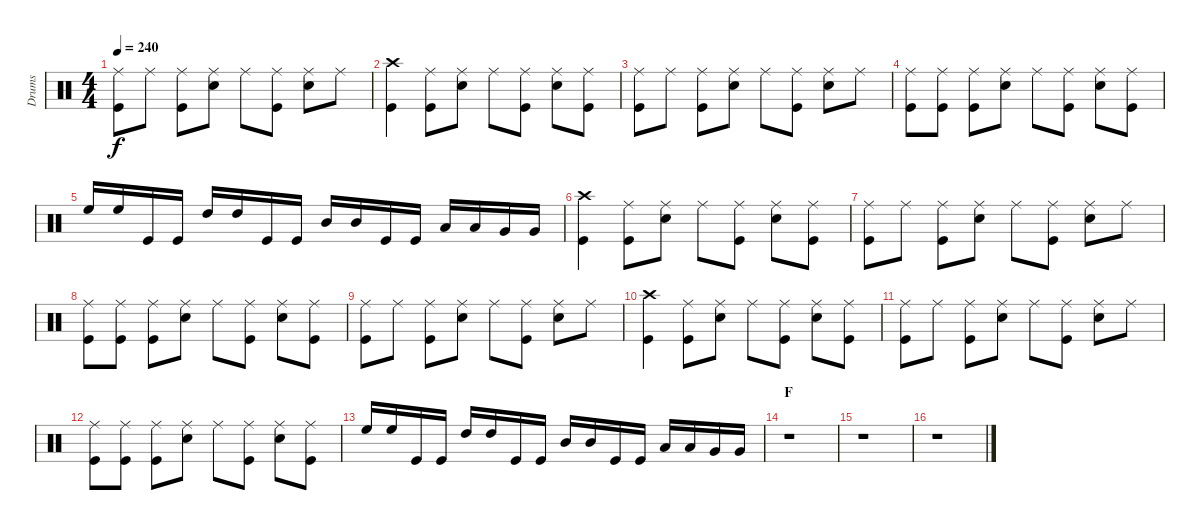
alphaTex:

\track ("Drums" "Drums") {instrument percussion}
\staff {score}
\articulation defaults
\ts (4 4)
\tempo 240
\clef neutral
\ks c
("Ride (middle)" "Kick (hit)").8{dy f} "Ride (middle)".8 ("Ride (middle)" "Kick (hit)").8 ("Ride (middle)" "Snare (hit) 2").8 "Ride (middle)".8 ("Ride (middle)" "Kick (hit)").8 ("Ride (middle)" "Snare (hit) 2").8 "Ride (middle)".8 |
("Crash high (hit)" "Kick (hit)").4 ("Ride (middle)" "Kick (hit)").8 ("Ride (middle)" "Snare (hit) 2").8 "Ride (middle)".8 ("Ride (middle)" "Kick (hit)").8 ("Ride (middle)" "Snare (hit) 2").8 ("Ride (middle)" "Kick (hit)").8 |
("Ride (middle)" "Kick (hit)").8 "Ride (middle)".8 ("Ride (middle)" "Kick (hit)").8 ("Ride (middle)" "Snare (hit) 2").8 "Ride (middle)".8 ("Ride (middle)" "Kick (hit)").8 ("Ride (middle)" "Snare (hit) 2").8 "Ride (middle)".8 |
("Ride (middle)" "Kick (hit)").8 ("Ride (middle)" "Kick (hit)").8 ("Ride (middle)" "Kick (hit)").8 ("Ride (middle)" "Snare (hit) 2").8 "Ride (middle)".8 ("Ride (middle)" "Kick (hit)").8 ("Ride (middle)" "Snare (hit) 2").8 ("Ride (middle)" "Kick (hit)").8 |
"High Floor Tom (hit)".16 "High Floor Tom (hit)".16 "Kick (hit)".16 "Kick (hit)".16 "High Tom (hit)".16 "High Tom (hit)".16 "Kick (hit)".16 "Kick (hit)".16 "Mid Tom (hit)".16 "Mid Tom (hit)".16 "Kick (hit)".16 "Kick (hit)".16 "Low Tom (hit)".16 "Low Tom (hit)".16 "Very Low Tom (hit)".16 "Very Low Tom (hit)".16 |
("Crash high (hit)" "Kick (hit)").4 ("Ride (middle)" "Kick (hit)").8 ("Ride (middle)" "Snare (hit) 2").8 "Ride (middle)".8 ("Ride (middle)" "Kick (hit)").8 ("Ride (middle)" "Snare (hit) 2").8 ("Ride (middle)" "Kick (hit)").8 |
("Ride (middle)" "Kick (hit)").8 "Ride (middle)".8 ("Ride (middle)" "Kick (hit)").8 ("Ride (middle)" "Snare (hit) 2").8 "Ride (middle)".8 ("Ride (middle)" "Kick (hit)").8 ("Ride (middle)" "Snare (hit) 2").8 "Ride (middle)".8 |
("Ride (middle)" "Kick (hit)").8 ("Ride (middle)" "Kick (hit)").8 ("Ride (middle)" "Kick (hit)").8 ("Ride (middle)" "Snare (hit) 2").8 "Ride (middle)".8 ("Ride (middle)" "Kick (hit)").8 ("Ride (middle)" "Snare (hit) 2").8 ("Ride (middle)" "Kick (hit)").8 |
("Ride (middle)" "Kick (hit)").8 "Ride (middle)".8 ("Ride (middle)" "Kick (hit)").8 ("Ride (middle)" "Snare (hit) 2").8 "Ride (middle)".8 ("Ride (middle)" "Kick (hit)").8 ("Ride (middle)" "Snare (hit) 2").8 "Ride (middle)".8 |
("Crash high (hit)" "Kick (hit)").4 ("Ride (middle)" "Kick (hit)").8 ("Ride (middle)" "Snare (hit) 2").8 "Ride (middle)".8 ("Ride (middle)" "Kick (hit)").8 ("Ride (middle)" "Snare (hit) 2").8 ("Ride (middle)" "Kick (hit)").8 |
("Ride (middle)" "Kick (hit)").8 "Ride (middle)".8 ("Ride (middle)" "Kick (hit)").8 ("Ride (middle)" "Snare (hit) 2").8 "Ride (middle)".8 ("Ride (middle)" "Kick (hit)").8 ("Ride (middle)" "Snare (hit) 2").8 "Ride (middle)".8 |
("Ride (middle)" "Kick (hit)").8 ("Ride (middle)" "Kick (hit)").8 ("Ride (middle)" "Kick (hit)").8 ("Ride (middle)" "Snare (hit) 2").8 "Ride (middle)".8 ("Ride (middle)" "Kick (hit)").8 ("Ride (middle)" "Snare (hit) 2").8 ("Ride (middle)" "Kick (hit)").8 |
"High Floor Tom (hit)".16 "High Floor Tom (hit)".16 "Kick (hit)".16 "Kick (hit)".16 "High Tom (hit)".16 "High Tom (hit)".16 "Kick (hit)".16 "Kick (hit)".16 "Mid Tom (hit)".16 "Mid Tom (hit)".16 "Kick (hit)".16 "Kick (hit)".16 "Low Tom (hit)".16 "Low Tom (hit)".16 "Very Low Tom (hit)".16 "Very Low Tom (hit)".16 |
\section ("" "F")
r.1 |
r.1 |
r.1
